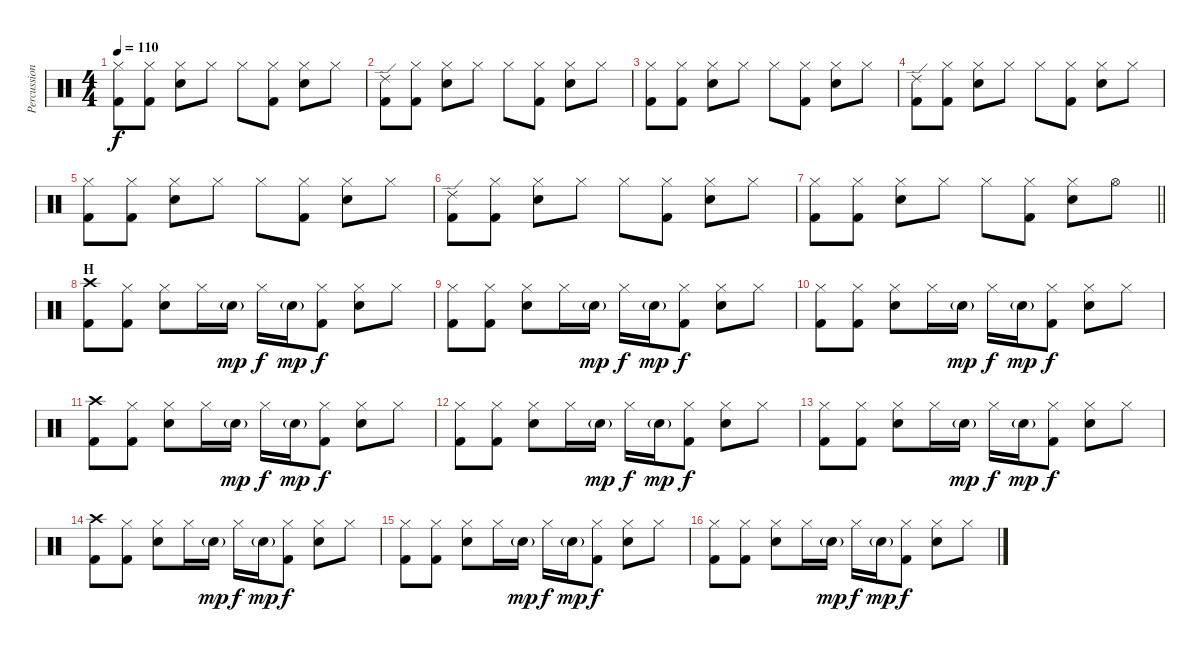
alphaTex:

\track ("Percussion" "Percussion") {instrument percussion}
\staff {score}
\articulation defaults
\ts (4 4)
\tempo 110
\clef neutral
\ks c
("Hi-Hat (closed)" "Kick (hit) 2").8{dy f} ("Hi-Hat (closed)" "Kick (hit) 2").8 ("Hi-Hat (closed)" "Electric Snare (hit)").8 "Hi-Hat (closed)".8 "Hi-Hat (closed)".8 ("Hi-Hat (closed)" "Kick (hit) 2").8 ("Hi-Hat (closed)" "Electric Snare (hit)").8 "Hi-Hat (closed)".8 |
("Ride (edge) 2" "Kick (hit) 2").8 ("Hi-Hat (closed)" "Kick (hit) 2").8 ("Hi-Hat (closed)" "Electric Snare (hit)").8 "Hi-Hat (closed)".8 "Hi-Hat (closed)".8 ("Hi-Hat (closed)" "Kick (hit) 2").8 ("Hi-Hat (closed)" "Electric Snare (hit)").8 "Hi-Hat (closed)".8 |
("Hi-Hat (closed)" "Kick (hit) 2").8 ("Hi-Hat (closed)" "Kick (hit) 2").8 ("Hi-Hat (closed)" "Electric Snare (hit)").8 "Hi-Hat (closed)".8 "Hi-Hat (closed)".8 ("Hi-Hat (closed)" "Kick (hit) 2").8 ("Hi-Hat (closed)" "Electric Snare (hit)").8 "Hi-Hat (closed)".8 |
("Ride (edge) 2" "Kick (hit) 2").8 ("Hi-Hat (closed)" "Kick (hit) 2").8 ("Hi-Hat (closed)" "Electric Snare (hit)").8 "Hi-Hat (closed)".8 "Hi-Hat (closed)".8 ("Hi-Hat (closed)" "Kick (hit) 2").8 ("Hi-Hat (closed)" "Electric Snare (hit)").8 "Hi-Hat (closed)".8 |
("Hi-Hat (closed)" "Kick (hit) 2").8 ("Hi-Hat (closed)" "Kick (hit) 2").8 ("Hi-Hat (closed)" "Electric Snare (hit)").8 "Hi-Hat (closed)".8 "Hi-Hat (closed)".8 ("Hi-Hat (closed)" "Kick (hit) 2").8 ("Hi-Hat (closed)" "Electric Snare (hit)").8 "Hi-Hat (closed)".8 |
("Ride (edge) 2" "Kick (hit) 2").8 ("Hi-Hat (closed)" "Kick (hit) 2").8 ("Hi-Hat (closed)" "Electric Snare (hit)").8 "Hi-Hat (closed)".8 "Hi-Hat (closed)".8 ("Hi-Hat (closed)" "Kick (hit) 2").8 ("Hi-Hat (closed)" "Electric Snare (hit)").8 "Hi-Hat (closed)".8 |
\barLineRight lightlight
("Hi-Hat (closed)" "Kick (hit) 2").8 ("Hi-Hat (closed)" "Kick (hit) 2").8 ("Hi-Hat (closed)" "Electric Snare (hit)").8 "Hi-Hat (closed)".8 "Hi-Hat (closed)".8 ("Hi-Hat (closed)" "Kick (hit) 2").8 ("Hi-Hat (closed)" "Electric Snare (hit)").8 "Hi-Hat (open)".8 |
\section ("" "H")
("Crash high (hit)" "Kick (hit) 2").8 ("Hi-Hat (closed)" "Kick (hit) 2").8 ("Hi-Hat (closed)" "Electric Snare (hit)").8 "Hi-Hat (closed)".16 "Electric Snare (hit)"{g}.16{dy mp} "Hi-Hat (closed)".16{dy f} "Electric Snare (hit)"{g}.16{dy mp} ("Hi-Hat (closed)" "Kick (hit) 2").8{dy f} ("Hi-Hat (closed)" "Electric Snare (hit)").8 "Hi-Hat (closed)".8 |
("Hi-Hat (closed)" "Kick (hit) 2").8 ("Hi-Hat (closed)" "Kick (hit) 2").8 ("Hi-Hat (closed)" "Electric Snare (hit)").8 "Hi-Hat (closed)".16 "Electric Snare (hit)"{g}.16{dy mp} "Hi-Hat (closed)".16{dy f} "Electric Snare (hit)"{g}.16{dy mp} ("Hi-Hat (closed)" "Kick (hit) 2").8{dy f} ("Hi-Hat (closed)" "Electric Snare (hit)").8 "Hi-Hat (closed)".8 |
("Hi-Hat (closed)" "Kick (hit) 2").8 ("Hi-Hat (closed)" "Kick (hit) 2").8 ("Hi-Hat (closed)" "Electric Snare (hit)").8 "Hi-Hat (closed)".16 "Electric Snare (hit)"{g}.16{dy mp} "Hi-Hat (closed)".16{dy f} "Electric Snare (hit)"{g}.16{dy mp} ("Hi-Hat (closed)" "Kick (hit) 2").8{dy f} ("Hi-Hat (closed)" "Electric Snare (hit)").8 "Hi-Hat (closed)".8 |
("Crash high (hit)" "Kick (hit) 2").8 ("Hi-Hat (closed)" "Kick (hit) 2").8 ("Hi-Hat (closed)" "Electric Snare (hit)").8 "Hi-Hat (closed)".16 "Electric Snare (hit)"{g}.16{dy mp} "Hi-Hat (closed)".16{dy f} "Electric Snare (hit)"{g}.16{dy mp} ("Hi-Hat (closed)" "Kick (hit) 2").8{dy f} ("Hi-Hat (closed)" "Electric Snare (hit)").8 "Hi-Hat (closed)".8 |
("Hi-Hat (closed)" "Kick (hit) 2").8 ("Hi-Hat (closed)" "Kick (hit) 2").8 ("Hi-Hat (closed)" "Electric Snare (hit)").8 "Hi-Hat (closed)".16 "Electric Snare (hit)"{g}.16{dy mp} "Hi-Hat (closed)".16{dy f} "Electric Snare (hit)"{g}.16{dy mp} ("Hi-Hat (closed)" "Kick (hit) 2").8{dy f} ("Hi-Hat (closed)" "Electric Snare (hit)").8 "Hi-Hat (closed)".8 |
("Hi-Hat (closed)" "Kick (hit) 2").8 ("Hi-Hat (closed)" "Kick (hit) 2").8 ("Hi-Hat (closed)" "Electric Snare (hit)").8 "Hi-Hat (closed)".16 "Electric Snare (hit)"{g}.16{dy mp} "Hi-Hat (closed)".16{dy f} "Electric Snare (hit)"{g}.16{dy mp} ("Hi-Hat (closed)" "Kick (hit) 2").8{dy f} ("Hi-Hat (closed)" "Electric Snare (hit)").8 "Hi-Hat (closed)".8 |
("Crash high (hit)" "Kick (hit) 2").8 ("Hi-Hat (closed)" "Kick (hit) 2").8 ("Hi-Hat (closed)" "Electric Snare (hit)").8 "Hi-Hat (closed)".16 "Electric Snare (hit)"{g}.16{dy mp} "Hi-Hat (closed)".16{dy f} "Electric Snare (hit)"{g}.16{dy mp} ("Hi-Hat (closed)" "Kick (hit) 2").8{dy f} ("Hi-Hat (closed)" "Electric Snare (hit)").8 "Hi-Hat (closed)".8 |
("Hi-Hat (closed)" "Kick (hit) 2").8 ("Hi-Hat (closed)" "Kick (hit) 2").8 ("Hi-Hat (closed)" "Electric Snare (hit)").8 "Hi-Hat (closed)".16 "Electric Snare (hit)"{g}.16{dy mp} "Hi-Hat (closed)".16{dy f} "Electric Snare (hit)"{g}.16{dy mp} ("Hi-Hat (closed)" "Kick (hit) 2").8{dy f} ("Hi-Hat (closed)" "Electric Snare (hit)").8 "Hi-Hat (closed)".8 |
("Hi-Hat (closed)" "Kick (hit) 2").8 ("Hi-Hat (closed)" "Kick (hit) 2").8 ("Hi-Hat (closed)" "Electric Snare (hit)").8 "Hi-Hat (closed)".16 "Electric Snare (hit)"{g}.16{dy mp} "Hi-Hat (closed)".16{dy f} "Electric Snare (hit)"{g}.16{dy mp} ("Hi-Hat (closed)" "Kick (hit) 2").8{dy f} ("Hi-Hat (closed)" "Electric Snare (hit)").8 "Hi-Hat (closed)".8
